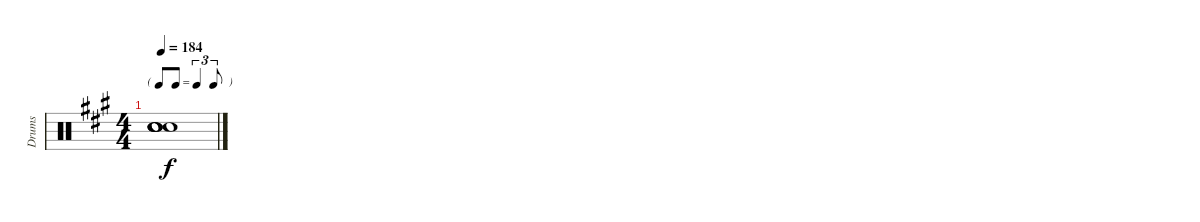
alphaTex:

\track ("Drums" "Drums") {instrument percussion}
\staff {score}
\articulation defaults
\ts (4 4)
\tf triplet8th
\tempo 184
\clef neutral
\ks a
("Snare (hit)"{t} "Snare (hit)"{t} "Snare (hit)"{t} "Snare (hit)"{t} "Snare (hit)"{t}).1{dy f}
